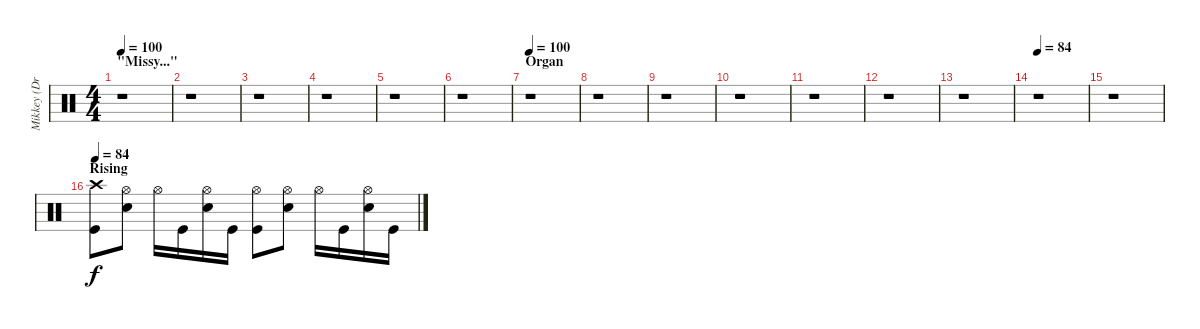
\track ("Mikkey (Drums)" "Mikkey (Dr") {instrument percussion}
\staff {score}
\articulation defaults
\ts (4 4)
\section ("" "\"Missy...\"")
\tempo 100
\clef neutral
\ks c
r.1{dy f} |
r.1 |
r.1 |
r.1 |
r.1 |
r.1 |
\section ("" "Organ")
\tempo 100
r.1 |
r.1 |
r.1 |
r.1 |
r.1 |
r.1 |
r.1 |
\tempo 84
r.1 |
r.1 |
\section ("" "Rising")
\tempo 84
("Crash high (hit)" "Kick (hit)").8 ("Hi-Hat (open)" "Electric Snare (hit)").8 "Hi-Hat (open)".16 "Kick (hit)".16 ("Hi-Hat (open)" "Electric Snare (hit)").16 "Kick (hit)".16 ("Hi-Hat (open)" "Kick (hit)").8 ("Hi-Hat (open)" "Electric Snare (hit)").8 "Hi-Hat (open)".16 "Kick (hit)".16 ("Hi-Hat (open)" "Electric Snare (hit)").16 "Kick (hit)".16
